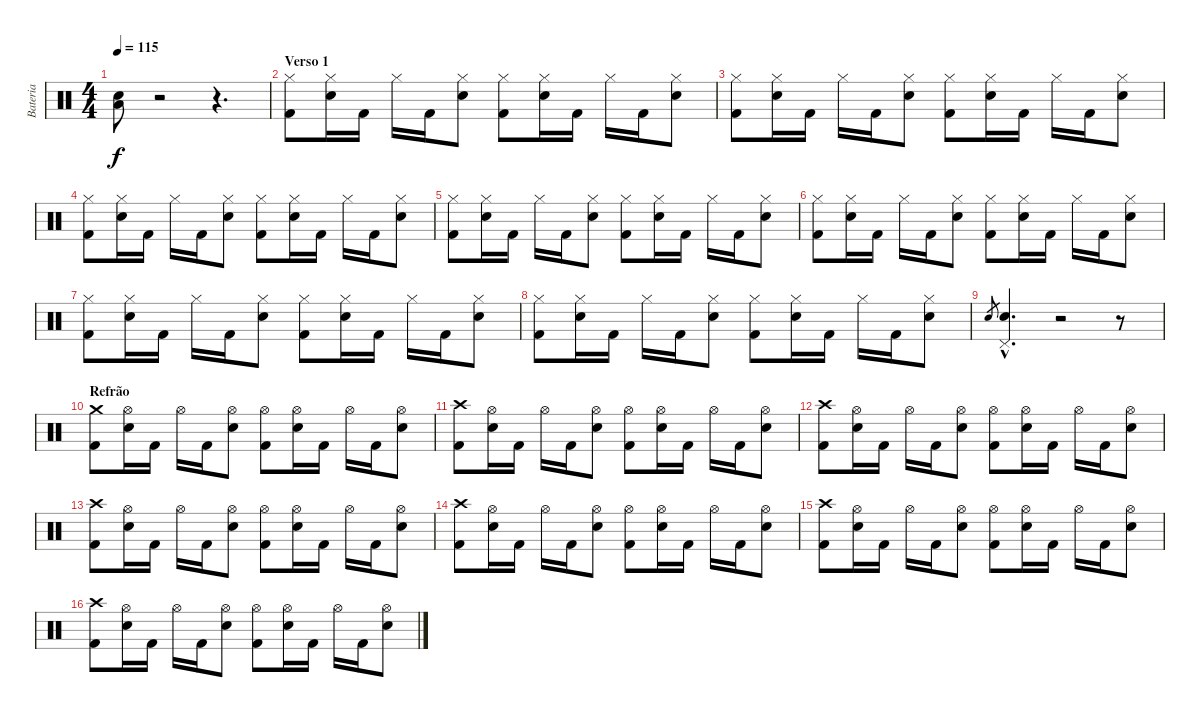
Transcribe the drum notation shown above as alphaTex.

\track ("Bateria" "Bateria") {instrument percussion}
\staff {score}
\articulation defaults
\ts (4 4)
\tempo 115
\clef neutral
\ks c
("Low Tom (hit)" "Electric Snare (hit)").8{dy f} r.2 r.4{d} |
\section ("" "Verso 1")
("Hi-Hat (closed)" "Kick (hit) 2").8 ("Hi-Hat (closed)" "Electric Snare (hit)").16 "Kick (hit) 2".16 "Hi-Hat (closed)".16 "Kick (hit) 2".16 ("Hi-Hat (closed)" "Electric Snare (hit)").8 ("Hi-Hat (closed)" "Kick (hit) 2").8 ("Hi-Hat (closed)" "Electric Snare (hit)").16 "Kick (hit) 2".16 "Hi-Hat (closed)".16 "Kick (hit) 2".16 ("Hi-Hat (closed)" "Electric Snare (hit)").8 |
("Hi-Hat (closed)" "Kick (hit) 2").8 ("Hi-Hat (closed)" "Electric Snare (hit)").16 "Kick (hit) 2".16 "Hi-Hat (closed)".16 "Kick (hit) 2".16 ("Hi-Hat (closed)" "Electric Snare (hit)").8 ("Hi-Hat (closed)" "Kick (hit) 2").8 ("Hi-Hat (closed)" "Electric Snare (hit)").16 "Kick (hit) 2".16 "Hi-Hat (closed)".16 "Kick (hit) 2".16 ("Hi-Hat (closed)" "Electric Snare (hit)").8 |
("Hi-Hat (closed)" "Kick (hit) 2").8 ("Hi-Hat (closed)" "Electric Snare (hit)").16 "Kick (hit) 2".16 "Hi-Hat (closed)".16 "Kick (hit) 2".16 ("Hi-Hat (closed)" "Electric Snare (hit)").8 ("Hi-Hat (closed)" "Kick (hit) 2").8 ("Hi-Hat (closed)" "Electric Snare (hit)").16 "Kick (hit) 2".16 "Hi-Hat (closed)".16 "Kick (hit) 2".16 ("Hi-Hat (closed)" "Electric Snare (hit)").8 |
("Hi-Hat (closed)" "Kick (hit) 2").8 ("Hi-Hat (closed)" "Electric Snare (hit)").16 "Kick (hit) 2".16 "Hi-Hat (closed)".16 "Kick (hit) 2".16 ("Hi-Hat (closed)" "Electric Snare (hit)").8 ("Hi-Hat (closed)" "Kick (hit) 2").8 ("Hi-Hat (closed)" "Electric Snare (hit)").16 "Kick (hit) 2".16 "Hi-Hat (closed)".16 "Kick (hit) 2".16 ("Hi-Hat (closed)" "Electric Snare (hit)").8 |
("Hi-Hat (closed)" "Kick (hit) 2").8 ("Hi-Hat (closed)" "Electric Snare (hit)").16 "Kick (hit) 2".16 "Hi-Hat (closed)".16 "Kick (hit) 2".16 ("Hi-Hat (closed)" "Electric Snare (hit)").8 ("Hi-Hat (closed)" "Kick (hit) 2").8 ("Hi-Hat (closed)" "Electric Snare (hit)").16 "Kick (hit) 2".16 "Hi-Hat (closed)".16 "Kick (hit) 2".16 ("Hi-Hat (closed)" "Electric Snare (hit)").8 |
("Hi-Hat (closed)" "Kick (hit) 2").8 ("Hi-Hat (closed)" "Electric Snare (hit)").16 "Kick (hit) 2".16 "Hi-Hat (closed)".16 "Kick (hit) 2".16 ("Hi-Hat (closed)" "Electric Snare (hit)").8 ("Hi-Hat (closed)" "Kick (hit) 2").8 ("Hi-Hat (closed)" "Electric Snare (hit)").16 "Kick (hit) 2".16 "Hi-Hat (closed)".16 "Kick (hit) 2".16 ("Hi-Hat (closed)" "Electric Snare (hit)").8 |
("Hi-Hat (closed)" "Kick (hit) 2").8 ("Hi-Hat (closed)" "Electric Snare (hit)").16 "Kick (hit) 2".16 "Hi-Hat (closed)".16 "Kick (hit) 2".16 ("Hi-Hat (closed)" "Electric Snare (hit)").8 ("Hi-Hat (closed)" "Kick (hit) 2").8 ("Hi-Hat (closed)" "Electric Snare (hit)").16 "Kick (hit) 2".16 "Hi-Hat (closed)".16 "Kick (hit) 2".16 ("Hi-Hat (closed)" "Electric Snare (hit)").8 |
"Electric Snare (hit)".8{gr} ("Pedal Hi-Hat (hit)"{hac} "Electric Snare (hit)"{hac}).4{d} r.2 r.8 |
\section ("" "Refrão")
("Crash medium (hit)" "Kick (hit) 2").8 ("Hi-Hat (open)" "Electric Snare (hit)").16 "Kick (hit) 2".16 "Hi-Hat (open)".16 "Kick (hit) 2".16 ("Hi-Hat (open)" "Electric Snare (hit)").8 ("Hi-Hat (open)" "Kick (hit) 2").8 ("Hi-Hat (open)" "Electric Snare (hit)").16 "Kick (hit) 2".16 "Hi-Hat (open)".16 "Kick (hit) 2".16 ("Hi-Hat (open)" "Electric Snare (hit)").8 |
("Crash high (hit)" "Kick (hit) 2").8 ("Hi-Hat (open)" "Electric Snare (hit)").16 "Kick (hit) 2".16 "Hi-Hat (open)".16 "Kick (hit) 2".16 ("Hi-Hat (open)" "Electric Snare (hit)").8 ("Hi-Hat (open)" "Kick (hit) 2").8 ("Hi-Hat (open)" "Electric Snare (hit)").16 "Kick (hit) 2".16 "Hi-Hat (open)".16 "Kick (hit) 2".16 ("Hi-Hat (open)" "Electric Snare (hit)").8 |
("Crash high (hit)" "Kick (hit) 2").8 ("Hi-Hat (open)" "Electric Snare (hit)").16 "Kick (hit) 2".16 "Hi-Hat (open)".16 "Kick (hit) 2".16 ("Hi-Hat (open)" "Electric Snare (hit)").8 ("Hi-Hat (open)" "Kick (hit) 2").8 ("Hi-Hat (open)" "Electric Snare (hit)").16 "Kick (hit) 2".16 "Hi-Hat (open)".16 "Kick (hit) 2".16 ("Hi-Hat (open)" "Electric Snare (hit)").8 |
("Crash high (hit)" "Kick (hit) 2").8 ("Hi-Hat (open)" "Electric Snare (hit)").16 "Kick (hit) 2".16 "Hi-Hat (open)".16 "Kick (hit) 2".16 ("Hi-Hat (open)" "Electric Snare (hit)").8 ("Hi-Hat (open)" "Kick (hit) 2").8 ("Hi-Hat (open)" "Electric Snare (hit)").16 "Kick (hit) 2".16 "Hi-Hat (open)".16 "Kick (hit) 2".16 ("Hi-Hat (open)" "Electric Snare (hit)").8 |
("Crash high (hit)" "Kick (hit) 2").8 ("Hi-Hat (open)" "Electric Snare (hit)").16 "Kick (hit) 2".16 "Hi-Hat (open)".16 "Kick (hit) 2".16 ("Hi-Hat (open)" "Electric Snare (hit)").8 ("Hi-Hat (open)" "Kick (hit) 2").8 ("Hi-Hat (open)" "Electric Snare (hit)").16 "Kick (hit) 2".16 "Hi-Hat (open)".16 "Kick (hit) 2".16 ("Hi-Hat (open)" "Electric Snare (hit)").8 |
("Crash high (hit)" "Kick (hit) 2").8 ("Hi-Hat (open)" "Electric Snare (hit)").16 "Kick (hit) 2".16 "Hi-Hat (open)".16 "Kick (hit) 2".16 ("Hi-Hat (open)" "Electric Snare (hit)").8 ("Hi-Hat (open)" "Kick (hit) 2").8 ("Hi-Hat (open)" "Electric Snare (hit)").16 "Kick (hit) 2".16 "Hi-Hat (open)".16 "Kick (hit) 2".16 ("Hi-Hat (open)" "Electric Snare (hit)").8 |
("Crash high (hit)" "Kick (hit) 2").8 ("Hi-Hat (open)" "Electric Snare (hit)").16 "Kick (hit) 2".16 "Hi-Hat (open)".16 "Kick (hit) 2".16 ("Hi-Hat (open)" "Electric Snare (hit)").8 ("Hi-Hat (open)" "Kick (hit) 2").8 ("Hi-Hat (open)" "Electric Snare (hit)").16 "Kick (hit) 2".16 "Hi-Hat (open)".16 "Kick (hit) 2".16 ("Hi-Hat (open)" "Electric Snare (hit)").8
